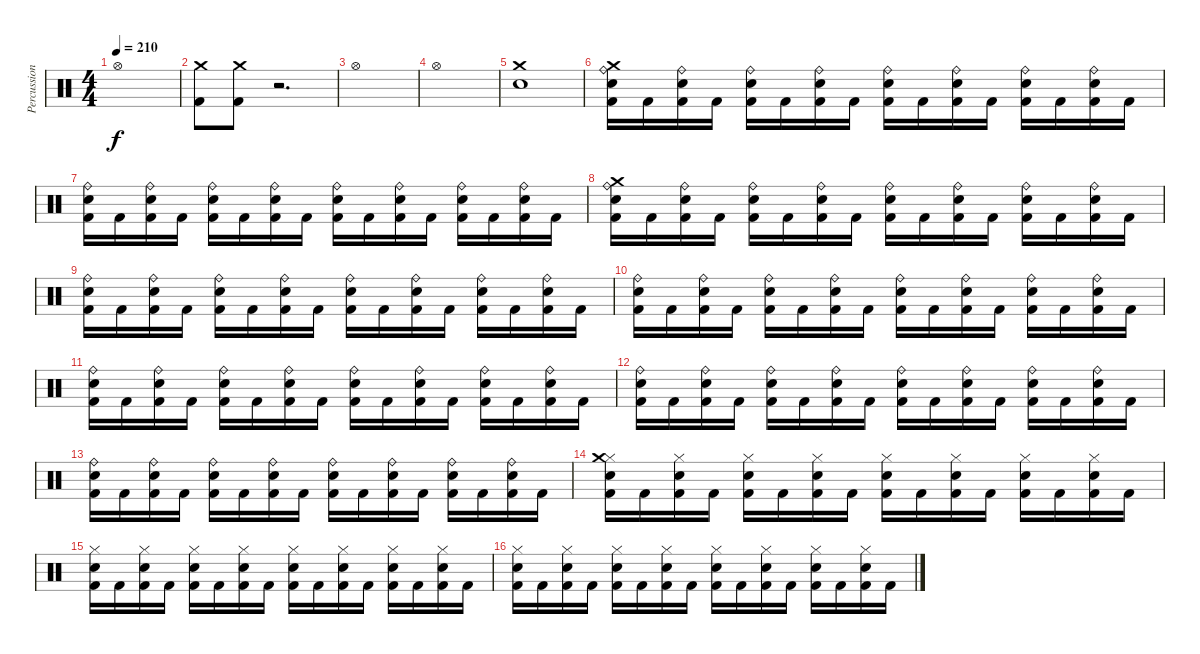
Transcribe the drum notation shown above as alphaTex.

\track ("Percussion" "Percussion") {instrument percussion}
\staff {score}
\articulation defaults
\ts (4 4)
\tempo 210
\clef neutral
\ks c "Hi-Hat (open)".1{dy f}
|
("Crash medium (hit)" "Kick (hit) 2").8 ("Crash medium (hit)" "Kick (hit) 2").8 r.2{d} |
"Hi-Hat (open)".1 |
"Hi-Hat (open)".1 |
("Crash medium (hit)" "Snare (hit) 2").1 |
("Ride (bell)" "Crash medium (hit)" "Snare (hit) 2" "Kick (hit) 2").16 "Kick (hit) 2".16 ("Ride (bell)" "Snare (hit) 2" "Kick (hit) 2").16 "Kick (hit) 2".16 ("Ride (bell)" "Snare (hit) 2" "Kick (hit) 2").16 "Kick (hit) 2".16 ("Ride (bell)" "Snare (hit) 2" "Kick (hit) 2").16 "Kick (hit) 2".16 ("Ride (bell)" "Snare (hit) 2" "Kick (hit) 2").16 "Kick (hit) 2".16 ("Ride (bell)" "Snare (hit) 2" "Kick (hit) 2").16 "Kick (hit) 2".16 ("Ride (bell)" "Snare (hit) 2" "Kick (hit) 2").16 "Kick (hit) 2".16 ("Ride (bell)" "Snare (hit) 2" "Kick (hit) 2").16 "Kick (hit) 2".16 |
("Ride (bell)" "Snare (hit) 2" "Kick (hit) 2").16 "Kick (hit) 2".16 ("Ride (bell)" "Snare (hit) 2" "Kick (hit) 2").16 "Kick (hit) 2".16 ("Ride (bell)" "Snare (hit) 2" "Kick (hit) 2").16 "Kick (hit) 2".16 ("Ride (bell)" "Snare (hit) 2" "Kick (hit) 2").16 "Kick (hit) 2".16 ("Ride (bell)" "Snare (hit) 2" "Kick (hit) 2").16 "Kick (hit) 2".16 ("Ride (bell)" "Snare (hit) 2" "Kick (hit) 2").16 "Kick (hit) 2".16 ("Ride (bell)" "Snare (hit) 2" "Kick (hit) 2").16 "Kick (hit) 2".16 ("Ride (bell)" "Snare (hit) 2" "Kick (hit) 2").16 "Kick (hit) 2".16 |
("Ride (bell)" "Crash medium (hit)" "Snare (hit) 2" "Kick (hit) 2").16 "Kick (hit) 2".16 ("Ride (bell)" "Snare (hit) 2" "Kick (hit) 2").16 "Kick (hit) 2".16 ("Ride (bell)" "Snare (hit) 2" "Kick (hit) 2").16 "Kick (hit) 2".16 ("Ride (bell)" "Snare (hit) 2" "Kick (hit) 2").16 "Kick (hit) 2".16 ("Ride (bell)" "Snare (hit) 2" "Kick (hit) 2").16 "Kick (hit) 2".16 ("Ride (bell)" "Snare (hit) 2" "Kick (hit) 2").16 "Kick (hit) 2".16 ("Ride (bell)" "Snare (hit) 2" "Kick (hit) 2").16 "Kick (hit) 2".16 ("Ride (bell)" "Snare (hit) 2" "Kick (hit) 2").16 "Kick (hit) 2".16 |
("Ride (bell)" "Snare (hit) 2" "Kick (hit) 2").16 "Kick (hit) 2".16 ("Ride (bell)" "Snare (hit) 2" "Kick (hit) 2").16 "Kick (hit) 2".16 ("Ride (bell)" "Snare (hit) 2" "Kick (hit) 2").16 "Kick (hit) 2".16 ("Ride (bell)" "Snare (hit) 2" "Kick (hit) 2").16 "Kick (hit) 2".16 ("Ride (bell)" "Snare (hit) 2" "Kick (hit) 2").16 "Kick (hit) 2".16 ("Ride (bell)" "Snare (hit) 2" "Kick (hit) 2").16 "Kick (hit) 2".16 ("Ride (bell)" "Snare (hit) 2" "Kick (hit) 2").16 "Kick (hit) 2".16 ("Ride (bell)" "Snare (hit) 2" "Kick (hit) 2").16 "Kick (hit) 2".16 |
("Ride (bell)" "Snare (hit) 2" "Kick (hit) 2").16 "Kick (hit) 2".16 ("Ride (bell)" "Snare (hit) 2" "Kick (hit) 2").16 "Kick (hit) 2".16 ("Ride (bell)" "Snare (hit) 2" "Kick (hit) 2").16 "Kick (hit) 2".16 ("Ride (bell)" "Snare (hit) 2" "Kick (hit) 2").16 "Kick (hit) 2".16 ("Ride (bell)" "Snare (hit) 2" "Kick (hit) 2").16 "Kick (hit) 2".16 ("Ride (bell)" "Snare (hit) 2" "Kick (hit) 2").16 "Kick (hit) 2".16 ("Ride (bell)" "Snare (hit) 2" "Kick (hit) 2").16 "Kick (hit) 2".16 ("Ride (bell)" "Snare (hit) 2" "Kick (hit) 2").16 "Kick (hit) 2".16 |
("Ride (bell)" "Snare (hit) 2" "Kick (hit) 2").16 "Kick (hit) 2".16 ("Ride (bell)" "Snare (hit) 2" "Kick (hit) 2").16 "Kick (hit) 2".16 ("Ride (bell)" "Snare (hit) 2" "Kick (hit) 2").16 "Kick (hit) 2".16 ("Ride (bell)" "Snare (hit) 2" "Kick (hit) 2").16 "Kick (hit) 2".16 ("Ride (bell)" "Snare (hit) 2" "Kick (hit) 2").16 "Kick (hit) 2".16 ("Ride (bell)" "Snare (hit) 2" "Kick (hit) 2").16 "Kick (hit) 2".16 ("Ride (bell)" "Snare (hit) 2" "Kick (hit) 2").16 "Kick (hit) 2".16 ("Ride (bell)" "Snare (hit) 2" "Kick (hit) 2").16 "Kick (hit) 2".16 |
("Ride (bell)" "Snare (hit) 2" "Kick (hit) 2").16 "Kick (hit) 2".16 ("Ride (bell)" "Snare (hit) 2" "Kick (hit) 2").16 "Kick (hit) 2".16 ("Ride (bell)" "Snare (hit) 2" "Kick (hit) 2").16 "Kick (hit) 2".16 ("Ride (bell)" "Snare (hit) 2" "Kick (hit) 2").16 "Kick (hit) 2".16 ("Ride (bell)" "Snare (hit) 2" "Kick (hit) 2").16 "Kick (hit) 2".16 ("Ride (bell)" "Snare (hit) 2" "Kick (hit) 2").16 "Kick (hit) 2".16 ("Ride (bell)" "Snare (hit) 2" "Kick (hit) 2").16 "Kick (hit) 2".16 ("Ride (bell)" "Snare (hit) 2" "Kick (hit) 2").16 "Kick (hit) 2".16 |
("Ride (bell)" "Snare (hit) 2" "Kick (hit) 2").16 "Kick (hit) 2".16 ("Ride (bell)" "Snare (hit) 2" "Kick (hit) 2").16 "Kick (hit) 2".16 ("Ride (bell)" "Snare (hit) 2" "Kick (hit) 2").16 "Kick (hit) 2".16 ("Ride (bell)" "Snare (hit) 2" "Kick (hit) 2").16 "Kick (hit) 2".16 ("Ride (bell)" "Snare (hit) 2" "Kick (hit) 2").16 "Kick (hit) 2".16 ("Ride (bell)" "Snare (hit) 2" "Kick (hit) 2").16 "Kick (hit) 2".16 ("Ride (bell)" "Snare (hit) 2" "Kick (hit) 2").16 "Kick (hit) 2".16 ("Ride (bell)" "Snare (hit) 2" "Kick (hit) 2").16 "Kick (hit) 2".16 |
("Hi-Hat (closed)" "Crash medium (hit)" "Snare (hit) 2" "Kick (hit) 2").16 "Kick (hit) 2".16 ("Hi-Hat (closed)" "Snare (hit) 2" "Kick (hit) 2").16 "Kick (hit) 2".16 ("Hi-Hat (closed)" "Snare (hit) 2" "Kick (hit) 2").16 "Kick (hit) 2".16 ("Hi-Hat (closed)" "Snare (hit) 2" "Kick (hit) 2").16 "Kick (hit) 2".16 ("Hi-Hat (closed)" "Snare (hit) 2" "Kick (hit) 2").16 "Kick (hit) 2".16 ("Hi-Hat (closed)" "Snare (hit) 2" "Kick (hit) 2").16 "Kick (hit) 2".16 ("Hi-Hat (closed)" "Snare (hit) 2" "Kick (hit) 2").16 "Kick (hit) 2".16 ("Hi-Hat (closed)" "Snare (hit) 2" "Kick (hit) 2").16 "Kick (hit) 2".16 |
("Hi-Hat (closed)" "Snare (hit) 2" "Kick (hit) 2").16 "Kick (hit) 2".16 ("Hi-Hat (closed)" "Snare (hit) 2" "Kick (hit) 2").16 "Kick (hit) 2".16 ("Hi-Hat (closed)" "Snare (hit) 2" "Kick (hit) 2").16 "Kick (hit) 2".16 ("Hi-Hat (closed)" "Snare (hit) 2" "Kick (hit) 2").16 "Kick (hit) 2".16 ("Hi-Hat (closed)" "Snare (hit) 2" "Kick (hit) 2").16 "Kick (hit) 2".16 ("Hi-Hat (closed)" "Snare (hit) 2" "Kick (hit) 2").16 "Kick (hit) 2".16 ("Hi-Hat (closed)" "Snare (hit) 2" "Kick (hit) 2").16 "Kick (hit) 2".16 ("Hi-Hat (closed)" "Snare (hit) 2" "Kick (hit) 2").16 "Kick (hit) 2".16 |
("Hi-Hat (closed)" "Snare (hit) 2" "Kick (hit) 2").16 "Kick (hit) 2".16 ("Hi-Hat (closed)" "Snare (hit) 2" "Kick (hit) 2").16 "Kick (hit) 2".16 ("Hi-Hat (closed)" "Snare (hit) 2" "Kick (hit) 2").16 "Kick (hit) 2".16 ("Hi-Hat (closed)" "Snare (hit) 2" "Kick (hit) 2").16 "Kick (hit) 2".16 ("Hi-Hat (closed)" "Snare (hit) 2" "Kick (hit) 2").16 "Kick (hit) 2".16 ("Hi-Hat (closed)" "Snare (hit) 2" "Kick (hit) 2").16 "Kick (hit) 2".16 ("Hi-Hat (closed)" "Snare (hit) 2" "Kick (hit) 2").16 "Kick (hit) 2".16 ("Hi-Hat (closed)" "Snare (hit) 2" "Kick (hit) 2").16 "Kick (hit) 2".16
